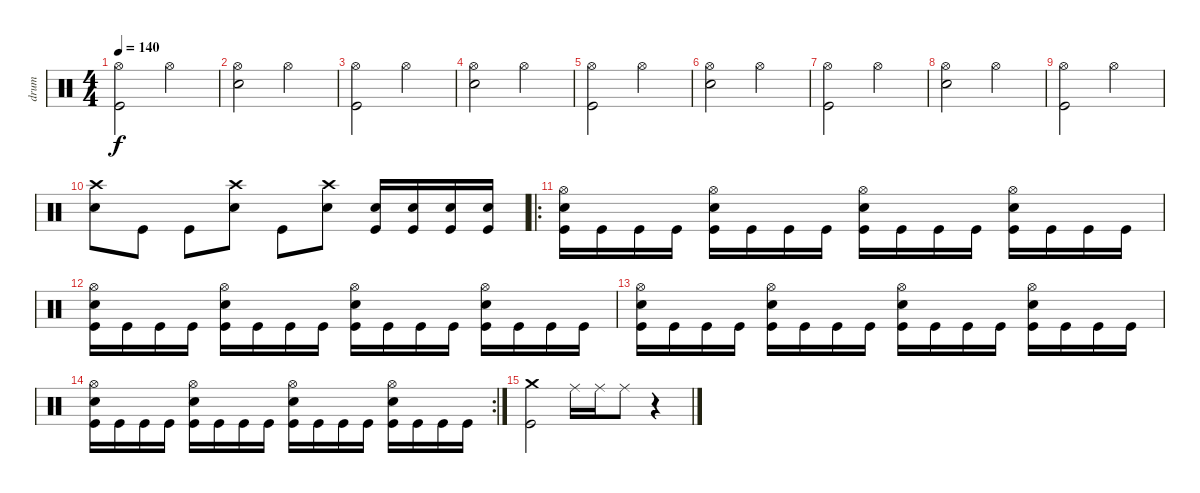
\track ("drum" "drum") {instrument percussion}
\staff {score}
\articulation defaults
\ts (4 4)
\tempo 140
\clef neutral
\ks c
("Hi-Hat (open)" "Kick (hit)").2{dy f} "Hi-Hat (open)".2 |
("Hi-Hat (open)" "Snare (hit) 2").2 "Hi-Hat (open)".2 |
("Hi-Hat (open)" "Kick (hit)").2 "Hi-Hat (open)".2 |
("Hi-Hat (open)" "Snare (hit) 2").2 "Hi-Hat (open)".2 |
("Hi-Hat (open)" "Kick (hit)").2 "Hi-Hat (open)".2 |
("Hi-Hat (open)" "Snare (hit) 2").2 "Hi-Hat (open)".2 |
("Hi-Hat (open)" "Kick (hit)").2 "Hi-Hat (open)".2 |
("Hi-Hat (open)" "Snare (hit) 2").2 "Hi-Hat (open)".2 |
("Hi-Hat (open)" "Kick (hit)").2 "Hi-Hat (open)".2 |
("Crash high (hit)" "Snare (hit) 2").8 "Kick (hit)".8 "Kick (hit)".8 ("Crash high (hit)" "Snare (hit) 2").8 "Kick (hit)".8 ("Crash high (hit)" "Snare (hit) 2").8 ("Snare (hit) 2" "Kick (hit)").16 ("Snare (hit) 2" "Kick (hit)").16 ("Snare (hit) 2" "Kick (hit)").16 ("Snare (hit) 2" "Kick (hit)").16 |
\ro
("Hi-Hat (open)" "Snare (hit) 2" "Kick (hit)").16 "Kick (hit)".16 "Kick (hit)".16 "Kick (hit)".16 ("Hi-Hat (open)" "Snare (hit) 2" "Kick (hit)").16 "Kick (hit)".16 "Kick (hit)".16 "Kick (hit)".16 ("Hi-Hat (open)" "Snare (hit) 2" "Kick (hit)").16 "Kick (hit)".16 "Kick (hit)".16 "Kick (hit)".16 ("Hi-Hat (open)" "Snare (hit) 2" "Kick (hit)").16 "Kick (hit)".16 "Kick (hit)".16 "Kick (hit)".16 |
("Hi-Hat (open)" "Snare (hit) 2" "Kick (hit)").16 "Kick (hit)".16 "Kick (hit)".16 "Kick (hit)".16 ("Hi-Hat (open)" "Snare (hit) 2" "Kick (hit)").16 "Kick (hit)".16 "Kick (hit)".16 "Kick (hit)".16 ("Hi-Hat (open)" "Snare (hit) 2" "Kick (hit)").16 "Kick (hit)".16 "Kick (hit)".16 "Kick (hit)".16 ("Hi-Hat (open)" "Snare (hit) 2" "Kick (hit)").16 "Kick (hit)".16 "Kick (hit)".16 "Kick (hit)".16 |
("Hi-Hat (open)" "Snare (hit) 2" "Kick (hit)").16 "Kick (hit)".16 "Kick (hit)".16 "Kick (hit)".16 ("Hi-Hat (open)" "Snare (hit) 2" "Kick (hit)").16 "Kick (hit)".16 "Kick (hit)".16 "Kick (hit)".16 ("Hi-Hat (open)" "Snare (hit) 2" "Kick (hit)").16 "Kick (hit)".16 "Kick (hit)".16 "Kick (hit)".16 ("Hi-Hat (open)" "Snare (hit) 2" "Kick (hit)").16 "Kick (hit)".16 "Kick (hit)".16 "Kick (hit)".16 |
\rc 2
("Hi-Hat (open)" "Snare (hit) 2" "Kick (hit)").16 "Kick (hit)".16 "Kick (hit)".16 "Kick (hit)".16 ("Hi-Hat (open)" "Snare (hit) 2" "Kick (hit)").16 "Kick (hit)".16 "Kick (hit)".16 "Kick (hit)".16 ("Hi-Hat (open)" "Snare (hit) 2" "Kick (hit)").16 "Kick (hit)".16 "Kick (hit)".16 "Kick (hit)".16 ("Hi-Hat (open)" "Snare (hit) 2" "Kick (hit)").16 "Kick (hit)".16 "Kick (hit)".16 "Kick (hit)".16 |
("Crash medium (hit)" "Kick (hit)").2 "Ride (middle)".16 "Ride (middle)".16 "Ride (middle)".8 r.4
